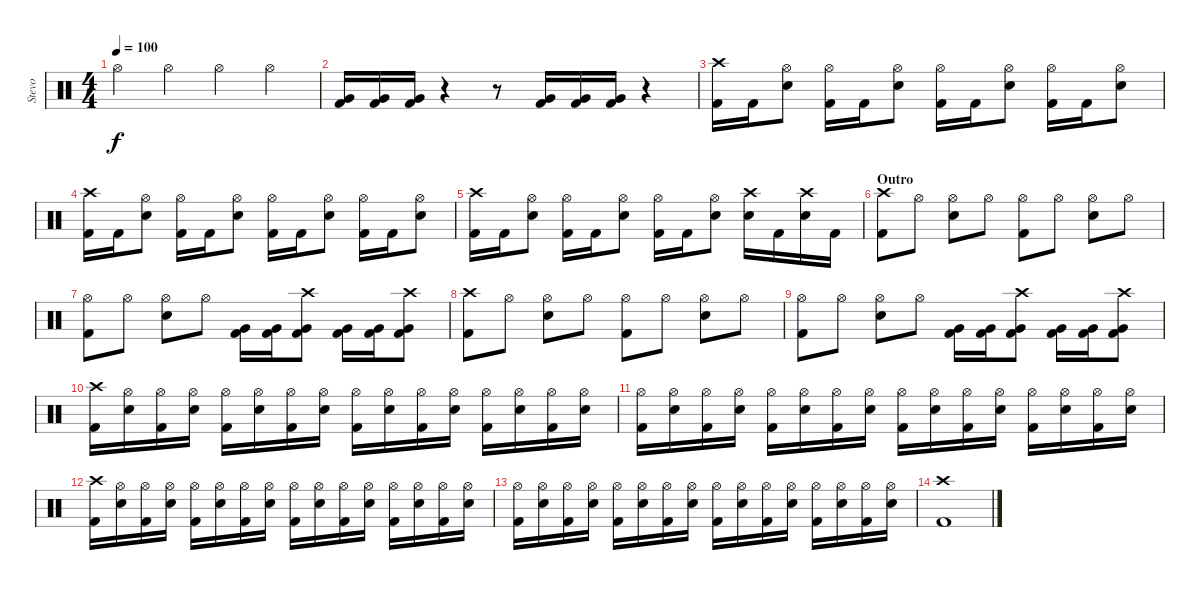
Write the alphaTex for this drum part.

\track ("Stevo" "Stevo") {instrument percussion}
\staff {score}
\articulation defaults
\ts (4 4)
\tempo 100
\clef neutral
\ks c "Hi-Hat (open)".4{dy f} "Hi-Hat (open)".4 "Hi-Hat (open)".4 "Hi-Hat (open)".4
|
("Very Low Tom (hit)" "Kick (hit) 2").16 ("Very Low Tom (hit)" "Kick (hit) 2").16 ("Very Low Tom (hit)" "Kick (hit) 2").16 r.4 r.8 ("Very Low Tom (hit)" "Kick (hit) 2").16 ("Very Low Tom (hit)" "Kick (hit) 2").16 ("Very Low Tom (hit)" "Kick (hit) 2").16 r.4 |
("Crash high (hit)" "Kick (hit) 2").16 "Kick (hit) 2".16 ("Hi-Hat (open)" "Electric Snare (hit)").8 ("Hi-Hat (open)" "Kick (hit) 2").16 "Kick (hit) 2".16 ("Hi-Hat (open)" "Electric Snare (hit)").8 ("Hi-Hat (open)" "Kick (hit) 2").16 "Kick (hit) 2".16 ("Hi-Hat (open)" "Electric Snare (hit)").8 ("Hi-Hat (open)" "Kick (hit) 2").16 "Kick (hit) 2".16 ("Hi-Hat (open)" "Electric Snare (hit)").8 |
("Crash high (hit)" "Kick (hit) 2").16 "Kick (hit) 2".16 ("Hi-Hat (open)" "Electric Snare (hit)").8 ("Hi-Hat (open)" "Kick (hit) 2").16 "Kick (hit) 2".16 ("Hi-Hat (open)" "Electric Snare (hit)").8 ("Hi-Hat (open)" "Kick (hit) 2").16 "Kick (hit) 2".16 ("Hi-Hat (open)" "Electric Snare (hit)").8 ("Hi-Hat (open)" "Kick (hit) 2").16 "Kick (hit) 2".16 ("Hi-Hat (open)" "Electric Snare (hit)").8 |
("Crash high (hit)" "Kick (hit) 2").16 "Kick (hit) 2".16 ("Hi-Hat (open)" "Electric Snare (hit)").8 ("Hi-Hat (open)" "Kick (hit) 2").16 "Kick (hit) 2".16 ("Hi-Hat (open)" "Electric Snare (hit)").8 ("Hi-Hat (open)" "Kick (hit) 2").16 "Kick (hit) 2".16 ("Hi-Hat (open)" "Electric Snare (hit)").8 ("Crash high (hit)" "Electric Snare (hit)").16 "Kick (hit) 2".16 ("Crash high (hit)" "Electric Snare (hit)").16 "Kick (hit) 2".16 |
\section ("" "Outro")
("Crash high (hit)" "Kick (hit) 2").8 "Hi-Hat (open)".8 ("Hi-Hat (open)" "Electric Snare (hit)").8 "Hi-Hat (open)".8 ("Hi-Hat (open)" "Kick (hit) 2").8 "Hi-Hat (open)".8 ("Hi-Hat (open)" "Electric Snare (hit)").8 "Hi-Hat (open)".8 |
("Hi-Hat (open)" "Kick (hit) 2").8 "Hi-Hat (open)".8 ("Hi-Hat (open)" "Electric Snare (hit)").8 "Hi-Hat (open)".8 ("Very Low Tom (hit)" "Kick (hit) 2").16 ("Very Low Tom (hit)" "Kick (hit) 2").16 ("Crash high (hit)" "Very Low Tom (hit)" "Kick (hit) 2").8 ("Very Low Tom (hit)" "Kick (hit) 2").16 ("Very Low Tom (hit)" "Kick (hit) 2").16 ("Crash high (hit)" "Very Low Tom (hit)" "Kick (hit) 2").8 |
("Crash high (hit)" "Kick (hit) 2").8 "Hi-Hat (open)".8 ("Hi-Hat (open)" "Electric Snare (hit)").8 "Hi-Hat (open)".8 ("Hi-Hat (open)" "Kick (hit) 2").8 "Hi-Hat (open)".8 ("Hi-Hat (open)" "Electric Snare (hit)").8 "Hi-Hat (open)".8 |
("Hi-Hat (open)" "Kick (hit) 2").8 "Hi-Hat (open)".8 ("Hi-Hat (open)" "Electric Snare (hit)").8 "Hi-Hat (open)".8 ("Very Low Tom (hit)" "Kick (hit) 2").16 ("Very Low Tom (hit)" "Kick (hit) 2").16 ("Crash high (hit)" "Very Low Tom (hit)" "Kick (hit) 2").8 ("Very Low Tom (hit)" "Kick (hit) 2").16 ("Very Low Tom (hit)" "Kick (hit) 2").16 ("Crash high (hit)" "Very Low Tom (hit)" "Kick (hit) 2").8 |
("Crash high (hit)" "Kick (hit) 2").16 ("Hi-Hat (open)" "Electric Snare (hit)").16 ("Hi-Hat (open)" "Kick (hit) 2").16 ("Hi-Hat (open)" "Electric Snare (hit)").16 ("Hi-Hat (open)" "Kick (hit) 2").16 ("Hi-Hat (open)" "Electric Snare (hit)").16 ("Hi-Hat (open)" "Kick (hit) 2").16 ("Hi-Hat (open)" "Electric Snare (hit)").16 ("Hi-Hat (open)" "Kick (hit) 2").16 ("Hi-Hat (open)" "Electric Snare (hit)").16 ("Hi-Hat (open)" "Kick (hit) 2").16 ("Hi-Hat (open)" "Electric Snare (hit)").16 ("Hi-Hat (open)" "Kick (hit) 2").16 ("Hi-Hat (open)" "Electric Snare (hit)").16 ("Hi-Hat (open)" "Kick (hit) 2").16 ("Hi-Hat (open)" "Electric Snare (hit)").16 |
("Hi-Hat (open)" "Kick (hit) 2").16 ("Hi-Hat (open)" "Electric Snare (hit)").16 ("Hi-Hat (open)" "Kick (hit) 2").16 ("Hi-Hat (open)" "Electric Snare (hit)").16 ("Hi-Hat (open)" "Kick (hit) 2").16 ("Hi-Hat (open)" "Electric Snare (hit)").16 ("Hi-Hat (open)" "Kick (hit) 2").16 ("Hi-Hat (open)" "Electric Snare (hit)").16 ("Hi-Hat (open)" "Kick (hit) 2").16 ("Hi-Hat (open)" "Electric Snare (hit)").16 ("Hi-Hat (open)" "Kick (hit) 2").16 ("Hi-Hat (open)" "Electric Snare (hit)").16 ("Hi-Hat (open)" "Kick (hit) 2").16 ("Hi-Hat (open)" "Electric Snare (hit)").16 ("Hi-Hat (open)" "Kick (hit) 2").16 ("Hi-Hat (open)" "Electric Snare (hit)").16 |
("Crash high (hit)" "Kick (hit) 2").16 ("Hi-Hat (open)" "Electric Snare (hit)").16 ("Hi-Hat (open)" "Kick (hit) 2").16 ("Hi-Hat (open)" "Electric Snare (hit)").16 ("Hi-Hat (open)" "Kick (hit) 2").16 ("Hi-Hat (open)" "Electric Snare (hit)").16 ("Hi-Hat (open)" "Kick (hit) 2").16 ("Hi-Hat (open)" "Electric Snare (hit)").16 ("Hi-Hat (open)" "Kick (hit) 2").16 ("Hi-Hat (open)" "Electric Snare (hit)").16 ("Hi-Hat (open)" "Kick (hit) 2").16 ("Hi-Hat (open)" "Electric Snare (hit)").16 ("Hi-Hat (open)" "Kick (hit) 2").16 ("Hi-Hat (open)" "Electric Snare (hit)").16 ("Hi-Hat (open)" "Kick (hit) 2").16 ("Hi-Hat (open)" "Electric Snare (hit)").16 |
("Hi-Hat (open)" "Kick (hit) 2").16 ("Hi-Hat (open)" "Electric Snare (hit)").16 ("Hi-Hat (open)" "Kick (hit) 2").16 ("Hi-Hat (open)" "Electric Snare (hit)").16 ("Hi-Hat (open)" "Kick (hit) 2").16 ("Hi-Hat (open)" "Electric Snare (hit)").16 ("Hi-Hat (open)" "Kick (hit) 2").16 ("Hi-Hat (open)" "Electric Snare (hit)").16 ("Hi-Hat (open)" "Kick (hit) 2").16 ("Hi-Hat (open)" "Electric Snare (hit)").16 ("Hi-Hat (open)" "Kick (hit) 2").16 ("Hi-Hat (open)" "Electric Snare (hit)").16 ("Hi-Hat (open)" "Kick (hit) 2").16 ("Hi-Hat (open)" "Electric Snare (hit)").16 ("Hi-Hat (open)" "Kick (hit) 2").16 ("Hi-Hat (open)" "Electric Snare (hit)").16 |
("Crash high (hit)" "Kick (hit) 2").1
